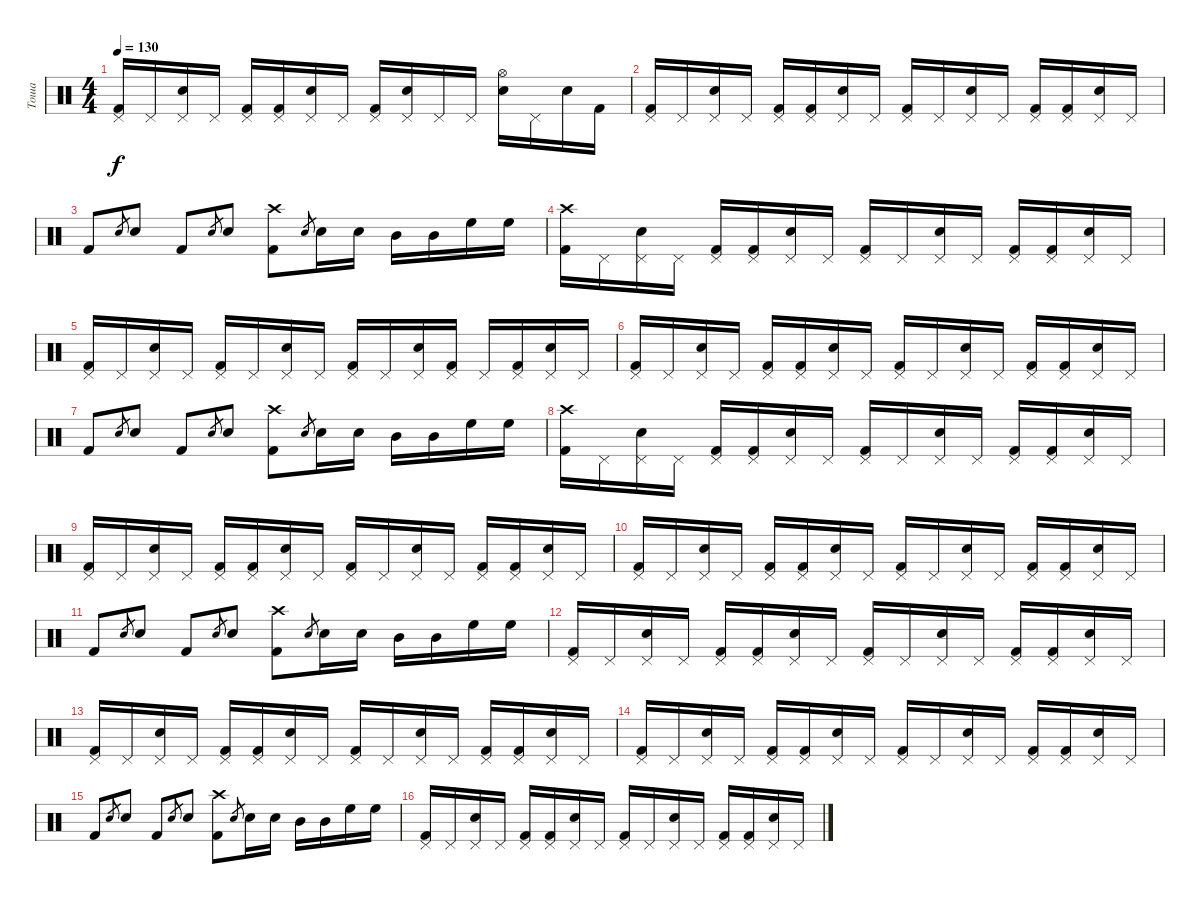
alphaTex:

\track ("Тоша" "Тоша") {solo instrument percussion}
\staff {score}
\articulation defaults
\ts (4 4)
\tempo 130
\clef neutral
\ks c
("Kick (hit) 2" "Pedal Hi-Hat (hit)").16{dy f} "Pedal Hi-Hat (hit)".16 ("Electric Snare (hit)" "Pedal Hi-Hat (hit)").16 "Pedal Hi-Hat (hit)".16 ("Kick (hit) 2" "Pedal Hi-Hat (hit)").16 ("Kick (hit) 2" "Pedal Hi-Hat (hit)").16 ("Electric Snare (hit)" "Pedal Hi-Hat (hit)").16 "Pedal Hi-Hat (hit)".16 ("Kick (hit) 2" "Pedal Hi-Hat (hit)").16 ("Electric Snare (hit)" "Pedal Hi-Hat (hit)").16 "Pedal Hi-Hat (hit)".16 "Pedal Hi-Hat (hit)".16 ("Electric Snare (hit)" "Hi-Hat (open)").16 "Pedal Hi-Hat (hit)".16 "Electric Snare (hit)".16 "Kick (hit) 2".16 |
("Kick (hit) 2" "Pedal Hi-Hat (hit)").16 "Pedal Hi-Hat (hit)".16 ("Electric Snare (hit)" "Pedal Hi-Hat (hit)").16 "Pedal Hi-Hat (hit)".16 ("Kick (hit) 2" "Pedal Hi-Hat (hit)").16 ("Kick (hit) 2" "Pedal Hi-Hat (hit)").16 ("Electric Snare (hit)" "Pedal Hi-Hat (hit)").16 "Pedal Hi-Hat (hit)".16 ("Kick (hit) 2" "Pedal Hi-Hat (hit)").16 "Pedal Hi-Hat (hit)".16 ("Electric Snare (hit)" "Pedal Hi-Hat (hit)").16 "Pedal Hi-Hat (hit)".16 ("Kick (hit) 2" "Pedal Hi-Hat (hit)").16 ("Kick (hit) 2" "Pedal Hi-Hat (hit)").16 ("Electric Snare (hit)" "Pedal Hi-Hat (hit)").16 "Pedal Hi-Hat (hit)".16 |
"Kick (hit) 2".8 "Electric Snare (hit)".8{gr} "Electric Snare (hit)".8 "Kick (hit) 2".8 "Electric Snare (hit)".8{gr} "Electric Snare (hit)".8 ("Kick (hit) 2" "Crash high (hit)").8 "Electric Snare (hit)".8{gr} "Electric Snare (hit)".16 "Electric Snare (hit)".16 "Mid Tom (hit)".16 "Mid Tom (hit)".16 "High Floor Tom (hit)".16 "High Floor Tom (hit)".16 |
("Kick (hit) 2" "Crash high (hit)").16 "Pedal Hi-Hat (hit)".16 ("Electric Snare (hit)" "Pedal Hi-Hat (hit)").16 "Pedal Hi-Hat (hit)".16 ("Kick (hit) 2" "Pedal Hi-Hat (hit)").16 ("Kick (hit) 2" "Pedal Hi-Hat (hit)").16 ("Electric Snare (hit)" "Pedal Hi-Hat (hit)").16 "Pedal Hi-Hat (hit)".16 ("Kick (hit) 2" "Pedal Hi-Hat (hit)").16 "Pedal Hi-Hat (hit)".16 ("Electric Snare (hit)" "Pedal Hi-Hat (hit)").16 "Pedal Hi-Hat (hit)".16 ("Kick (hit) 2" "Pedal Hi-Hat (hit)").16 ("Kick (hit) 2" "Pedal Hi-Hat (hit)").16 ("Electric Snare (hit)" "Pedal Hi-Hat (hit)").16 "Pedal Hi-Hat (hit)".16 |
("Kick (hit) 2" "Pedal Hi-Hat (hit)").16 "Pedal Hi-Hat (hit)".16 ("Electric Snare (hit)" "Pedal Hi-Hat (hit)").16 "Pedal Hi-Hat (hit)".16 ("Kick (hit) 2" "Pedal Hi-Hat (hit)").16 "Pedal Hi-Hat (hit)".16 ("Electric Snare (hit)" "Pedal Hi-Hat (hit)").16 "Pedal Hi-Hat (hit)".16 ("Kick (hit) 2" "Pedal Hi-Hat (hit)").16 "Pedal Hi-Hat (hit)".16 ("Electric Snare (hit)" "Pedal Hi-Hat (hit)").16 ("Kick (hit) 2" "Pedal Hi-Hat (hit)").16 "Pedal Hi-Hat (hit)".16 ("Kick (hit) 2" "Pedal Hi-Hat (hit)").16 ("Electric Snare (hit)" "Pedal Hi-Hat (hit)").16 "Pedal Hi-Hat (hit)".16 |
("Kick (hit) 2" "Pedal Hi-Hat (hit)").16 "Pedal Hi-Hat (hit)".16 ("Electric Snare (hit)" "Pedal Hi-Hat (hit)").16 "Pedal Hi-Hat (hit)".16 ("Kick (hit) 2" "Pedal Hi-Hat (hit)").16 ("Kick (hit) 2" "Pedal Hi-Hat (hit)").16 ("Electric Snare (hit)" "Pedal Hi-Hat (hit)").16 "Pedal Hi-Hat (hit)".16 ("Kick (hit) 2" "Pedal Hi-Hat (hit)").16 "Pedal Hi-Hat (hit)".16 ("Electric Snare (hit)" "Pedal Hi-Hat (hit)").16 "Pedal Hi-Hat (hit)".16 ("Kick (hit) 2" "Pedal Hi-Hat (hit)").16 ("Kick (hit) 2" "Pedal Hi-Hat (hit)").16 ("Electric Snare (hit)" "Pedal Hi-Hat (hit)").16 "Pedal Hi-Hat (hit)".16 |
"Kick (hit) 2".8 "Electric Snare (hit)".8{gr} "Electric Snare (hit)".8 "Kick (hit) 2".8 "Electric Snare (hit)".8{gr} "Electric Snare (hit)".8 ("Kick (hit) 2" "Crash high (hit)").8 "Electric Snare (hit)".8{gr} "Electric Snare (hit)".16 "Electric Snare (hit)".16 "Mid Tom (hit)".16 "Mid Tom (hit)".16 "High Floor Tom (hit)".16 "High Floor Tom (hit)".16 |
("Kick (hit) 2" "Crash high (hit)").16 "Pedal Hi-Hat (hit)".16 ("Electric Snare (hit)" "Pedal Hi-Hat (hit)").16 "Pedal Hi-Hat (hit)".16 ("Kick (hit) 2" "Pedal Hi-Hat (hit)").16 ("Kick (hit) 2" "Pedal Hi-Hat (hit)").16 ("Electric Snare (hit)" "Pedal Hi-Hat (hit)").16 "Pedal Hi-Hat (hit)".16 ("Kick (hit) 2" "Pedal Hi-Hat (hit)").16 "Pedal Hi-Hat (hit)".16 ("Electric Snare (hit)" "Pedal Hi-Hat (hit)").16 "Pedal Hi-Hat (hit)".16 ("Kick (hit) 2" "Pedal Hi-Hat (hit)").16 ("Kick (hit) 2" "Pedal Hi-Hat (hit)").16 ("Electric Snare (hit)" "Pedal Hi-Hat (hit)").16 "Pedal Hi-Hat (hit)".16 |
("Kick (hit) 2" "Pedal Hi-Hat (hit)").16 "Pedal Hi-Hat (hit)".16 ("Electric Snare (hit)" "Pedal Hi-Hat (hit)").16 "Pedal Hi-Hat (hit)".16 ("Kick (hit) 2" "Pedal Hi-Hat (hit)").16 ("Kick (hit) 2" "Pedal Hi-Hat (hit)").16 ("Electric Snare (hit)" "Pedal Hi-Hat (hit)").16 "Pedal Hi-Hat (hit)".16 ("Kick (hit) 2" "Pedal Hi-Hat (hit)").16 "Pedal Hi-Hat (hit)".16 ("Electric Snare (hit)" "Pedal Hi-Hat (hit)").16 "Pedal Hi-Hat (hit)".16 ("Kick (hit) 2" "Pedal Hi-Hat (hit)").16 ("Kick (hit) 2" "Pedal Hi-Hat (hit)").16 ("Electric Snare (hit)" "Pedal Hi-Hat (hit)").16 "Pedal Hi-Hat (hit)".16 |
("Kick (hit) 2" "Pedal Hi-Hat (hit)").16 "Pedal Hi-Hat (hit)".16 ("Electric Snare (hit)" "Pedal Hi-Hat (hit)").16 "Pedal Hi-Hat (hit)".16 ("Kick (hit) 2" "Pedal Hi-Hat (hit)").16 ("Kick (hit) 2" "Pedal Hi-Hat (hit)").16 ("Electric Snare (hit)" "Pedal Hi-Hat (hit)").16 "Pedal Hi-Hat (hit)".16 ("Kick (hit) 2" "Pedal Hi-Hat (hit)").16 "Pedal Hi-Hat (hit)".16 ("Electric Snare (hit)" "Pedal Hi-Hat (hit)").16 "Pedal Hi-Hat (hit)".16 ("Kick (hit) 2" "Pedal Hi-Hat (hit)").16 ("Kick (hit) 2" "Pedal Hi-Hat (hit)").16 ("Electric Snare (hit)" "Pedal Hi-Hat (hit)").16 "Pedal Hi-Hat (hit)".16 |
"Kick (hit) 2".8 "Electric Snare (hit)".8{gr} "Electric Snare (hit)".8 "Kick (hit) 2".8 "Electric Snare (hit)".8{gr} "Electric Snare (hit)".8 ("Kick (hit) 2" "Crash high (hit)").8 "Electric Snare (hit)".8{gr} "Electric Snare (hit)".16 "Electric Snare (hit)".16 "Mid Tom (hit)".16 "Mid Tom (hit)".16 "High Floor Tom (hit)".16 "High Floor Tom (hit)".16 |
("Kick (hit) 2" "Pedal Hi-Hat (hit)").16 "Pedal Hi-Hat (hit)".16 ("Electric Snare (hit)" "Pedal Hi-Hat (hit)").16 "Pedal Hi-Hat (hit)".16 ("Kick (hit) 2" "Pedal Hi-Hat (hit)").16 ("Kick (hit) 2" "Pedal Hi-Hat (hit)").16 ("Electric Snare (hit)" "Pedal Hi-Hat (hit)").16 "Pedal Hi-Hat (hit)".16 ("Kick (hit) 2" "Pedal Hi-Hat (hit)").16 "Pedal Hi-Hat (hit)".16 ("Electric Snare (hit)" "Pedal Hi-Hat (hit)").16 "Pedal Hi-Hat (hit)".16 ("Kick (hit) 2" "Pedal Hi-Hat (hit)").16 ("Kick (hit) 2" "Pedal Hi-Hat (hit)").16 ("Electric Snare (hit)" "Pedal Hi-Hat (hit)").16 "Pedal Hi-Hat (hit)".16 |
("Kick (hit) 2" "Pedal Hi-Hat (hit)").16 "Pedal Hi-Hat (hit)".16 ("Electric Snare (hit)" "Pedal Hi-Hat (hit)").16 "Pedal Hi-Hat (hit)".16 ("Kick (hit) 2" "Pedal Hi-Hat (hit)").16 ("Kick (hit) 2" "Pedal Hi-Hat (hit)").16 ("Electric Snare (hit)" "Pedal Hi-Hat (hit)").16 "Pedal Hi-Hat (hit)".16 ("Kick (hit) 2" "Pedal Hi-Hat (hit)").16 "Pedal Hi-Hat (hit)".16 ("Electric Snare (hit)" "Pedal Hi-Hat (hit)").16 "Pedal Hi-Hat (hit)".16 ("Kick (hit) 2" "Pedal Hi-Hat (hit)").16 ("Kick (hit) 2" "Pedal Hi-Hat (hit)").16 ("Electric Snare (hit)" "Pedal Hi-Hat (hit)").16 "Pedal Hi-Hat (hit)".16 |
("Kick (hit) 2" "Pedal Hi-Hat (hit)").16 "Pedal Hi-Hat (hit)".16 ("Electric Snare (hit)" "Pedal Hi-Hat (hit)").16 "Pedal Hi-Hat (hit)".16 ("Kick (hit) 2" "Pedal Hi-Hat (hit)").16 ("Kick (hit) 2" "Pedal Hi-Hat (hit)").16 ("Electric Snare (hit)" "Pedal Hi-Hat (hit)").16 "Pedal Hi-Hat (hit)".16 ("Kick (hit) 2" "Pedal Hi-Hat (hit)").16 "Pedal Hi-Hat (hit)".16 ("Electric Snare (hit)" "Pedal Hi-Hat (hit)").16 "Pedal Hi-Hat (hit)".16 ("Kick (hit) 2" "Pedal Hi-Hat (hit)").16 ("Kick (hit) 2" "Pedal Hi-Hat (hit)").16 ("Electric Snare (hit)" "Pedal Hi-Hat (hit)").16 "Pedal Hi-Hat (hit)".16 |
"Kick (hit) 2".8 "Electric Snare (hit)".8{gr} "Electric Snare (hit)".8 "Kick (hit) 2".8 "Electric Snare (hit)".8{gr} "Electric Snare (hit)".8 ("Kick (hit) 2" "Crash high (hit)").8 "Electric Snare (hit)".8{gr} "Electric Snare (hit)".16 "Electric Snare (hit)".16 "Mid Tom (hit)".16 "Mid Tom (hit)".16 "High Floor Tom (hit)".16 "High Floor Tom (hit)".16 |
("Kick (hit) 2" "Pedal Hi-Hat (hit)").16 "Pedal Hi-Hat (hit)".16 ("Electric Snare (hit)" "Pedal Hi-Hat (hit)").16 "Pedal Hi-Hat (hit)".16 ("Kick (hit) 2" "Pedal Hi-Hat (hit)").16 ("Kick (hit) 2" "Pedal Hi-Hat (hit)").16 ("Electric Snare (hit)" "Pedal Hi-Hat (hit)").16 "Pedal Hi-Hat (hit)".16 ("Kick (hit) 2" "Pedal Hi-Hat (hit)").16 "Pedal Hi-Hat (hit)".16 ("Electric Snare (hit)" "Pedal Hi-Hat (hit)").16 "Pedal Hi-Hat (hit)".16 ("Kick (hit) 2" "Pedal Hi-Hat (hit)").16 ("Kick (hit) 2" "Pedal Hi-Hat (hit)").16 ("Electric Snare (hit)" "Pedal Hi-Hat (hit)").16 "Pedal Hi-Hat (hit)".16
